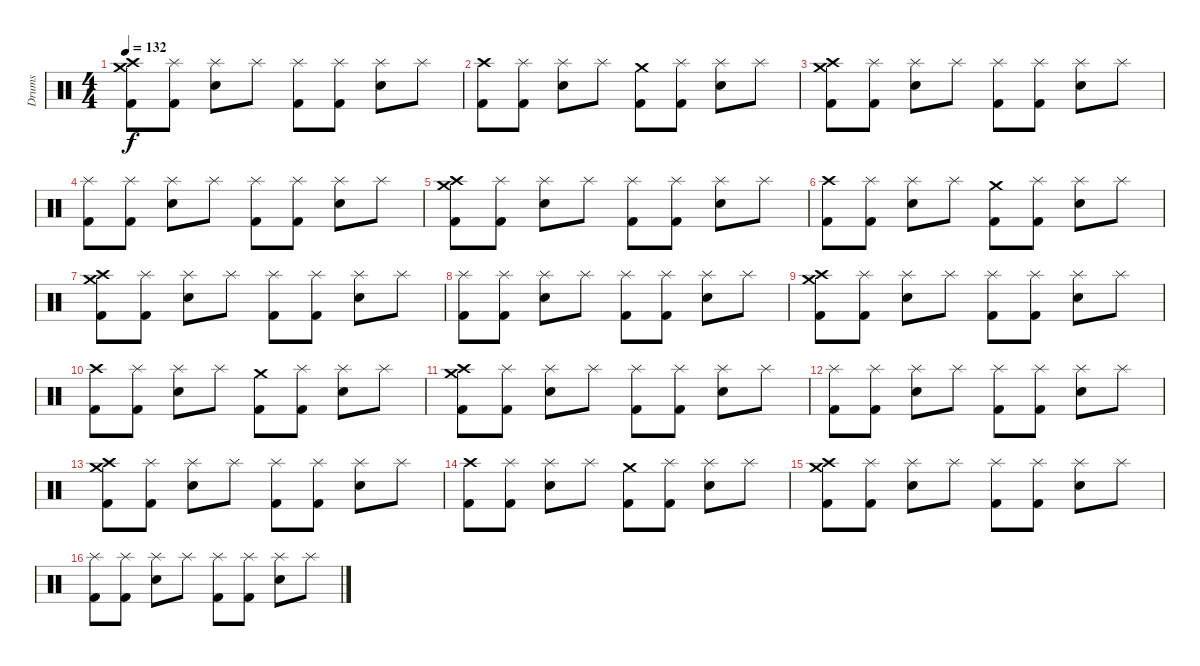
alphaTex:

\track ("Drums" "Drums") {instrument percussion}
\staff {score}
\articulation defaults
\ts (4 4)
\tempo 132
\clef neutral
\ks c
("Kick (hit) 2" "Crash high (hit)" "Crash medium (hit)").8{dy f} ("Splash (hit)" "Kick (hit) 2").8 ("Splash (hit)" "Snare (hit) 2").8 "Splash (hit)".8 ("Splash (hit)" "Kick (hit) 2").8 ("Splash (hit)" "Kick (hit) 2").8 ("Splash (hit)" "Snare (hit) 2").8 "Splash (hit)".8 |
("Kick (hit) 2" "Crash high (hit)").8 ("Splash (hit)" "Kick (hit) 2").8 ("Splash (hit)" "Snare (hit) 2").8 "Splash (hit)".8 ("Kick (hit) 2" "Crash medium (hit)").8 ("Splash (hit)" "Kick (hit) 2").8 ("Splash (hit)" "Snare (hit) 2").8 "Splash (hit)".8 |
("Kick (hit) 2" "Crash high (hit)" "Crash medium (hit)").8 ("Splash (hit)" "Kick (hit) 2").8 ("Splash (hit)" "Snare (hit) 2").8 "Splash (hit)".8 ("Splash (hit)" "Kick (hit) 2").8 ("Splash (hit)" "Kick (hit) 2").8 ("Splash (hit)" "Snare (hit) 2").8 "Splash (hit)".8 |
("Splash (hit)" "Kick (hit) 2").8 ("Splash (hit)" "Kick (hit) 2").8 ("Splash (hit)" "Snare (hit) 2").8 "Splash (hit)".8 ("Splash (hit)" "Kick (hit) 2").8 ("Splash (hit)" "Kick (hit) 2").8 ("Splash (hit)" "Snare (hit) 2").8 "Splash (hit)".8 |
("Kick (hit) 2" "Crash high (hit)" "Crash medium (hit)").8 ("Kick (hit) 2" "Splash (hit)").8 ("Snare (hit) 2" "Splash (hit)").8 "Splash (hit)".8 ("Kick (hit) 2" "Splash (hit)").8 ("Kick (hit) 2" "Splash (hit)").8 ("Snare (hit) 2" "Splash (hit)").8 "Splash (hit)".8 |
("Kick (hit) 2" "Crash high (hit)").8 ("Kick (hit) 2" "Splash (hit)").8 ("Snare (hit) 2" "Splash (hit)").8 "Splash (hit)".8 ("Kick (hit) 2" "Crash medium (hit)").8 ("Kick (hit) 2" "Splash (hit)").8 ("Snare (hit) 2" "Splash (hit)").8 "Splash (hit)".8 |
("Kick (hit) 2" "Crash high (hit)" "Crash medium (hit)").8 ("Kick (hit) 2" "Splash (hit)").8 ("Snare (hit) 2" "Splash (hit)").8 "Splash (hit)".8 ("Kick (hit) 2" "Splash (hit)").8 ("Kick (hit) 2" "Splash (hit)").8 ("Snare (hit) 2" "Splash (hit)").8 "Splash (hit)".8 |
("Kick (hit) 2" "Splash (hit)").8 ("Splash (hit)" "Kick (hit) 2").8 ("Snare (hit) 2" "Splash (hit)").8 "Splash (hit)".8 ("Kick (hit) 2" "Splash (hit)").8 ("Kick (hit) 2" "Splash (hit)").8 ("Snare (hit) 2" "Splash (hit)").8 "Splash (hit)".8 |
("Kick (hit) 2" "Crash high (hit)" "Crash medium (hit)").8 ("Kick (hit) 2" "Splash (hit)").8 ("Snare (hit) 2" "Splash (hit)").8 "Splash (hit)".8 ("Kick (hit) 2" "Splash (hit)").8 ("Kick (hit) 2" "Splash (hit)").8 ("Snare (hit) 2" "Splash (hit)").8 "Splash (hit)".8 |
("Kick (hit) 2" "Crash high (hit)").8 ("Kick (hit) 2" "Splash (hit)").8 ("Snare (hit) 2" "Splash (hit)").8 "Splash (hit)".8 ("Kick (hit) 2" "Crash medium (hit)").8 ("Kick (hit) 2" "Splash (hit)").8 ("Snare (hit) 2" "Splash (hit)").8 "Splash (hit)".8 |
("Kick (hit) 2" "Crash high (hit)" "Crash medium (hit)").8 ("Splash (hit)" "Kick (hit) 2").8 ("Snare (hit) 2" "Splash (hit)").8 "Splash (hit)".8 ("Splash (hit)" "Kick (hit) 2").8 ("Splash (hit)" "Kick (hit) 2").8 ("Snare (hit) 2" "Splash (hit)").8 "Splash (hit)".8 |
("Splash (hit)" "Kick (hit) 2").8 ("Splash (hit)" "Kick (hit) 2").8 ("Snare (hit) 2" "Splash (hit)").8 "Splash (hit)".8 ("Splash (hit)" "Kick (hit) 2").8 ("Splash (hit)" "Kick (hit) 2").8 ("Snare (hit) 2" "Splash (hit)").8 "Splash (hit)".8 |
("Kick (hit) 2" "Crash high (hit)" "Crash medium (hit)").8 ("Splash (hit)" "Kick (hit) 2").8 ("Snare (hit) 2" "Splash (hit)").8 "Splash (hit)".8 ("Splash (hit)" "Kick (hit) 2").8 ("Splash (hit)" "Kick (hit) 2").8 ("Snare (hit) 2" "Splash (hit)").8 "Splash (hit)".8 |
("Kick (hit) 2" "Crash high (hit)").8 ("Splash (hit)" "Kick (hit) 2").8 ("Snare (hit) 2" "Splash (hit)").8 "Splash (hit)".8 ("Kick (hit) 2" "Crash medium (hit)").8 ("Splash (hit)" "Kick (hit) 2").8 ("Snare (hit) 2" "Splash (hit)").8 "Splash (hit)".8 |
("Kick (hit) 2" "Crash high (hit)" "Crash medium (hit)").8 ("Splash (hit)" "Kick (hit) 2").8 ("Snare (hit) 2" "Splash (hit)").8 "Splash (hit)".8 ("Splash (hit)" "Kick (hit) 2").8 ("Splash (hit)" "Kick (hit) 2").8 ("Snare (hit) 2" "Splash (hit)").8 "Splash (hit)".8 |
("Splash (hit)" "Kick (hit) 2").8 ("Splash (hit)" "Kick (hit) 2").8 ("Snare (hit) 2" "Splash (hit)").8 "Splash (hit)".8 ("Splash (hit)" "Kick (hit) 2").8 ("Splash (hit)" "Kick (hit) 2").8 ("Snare (hit) 2" "Splash (hit)").8 "Splash (hit)".8
